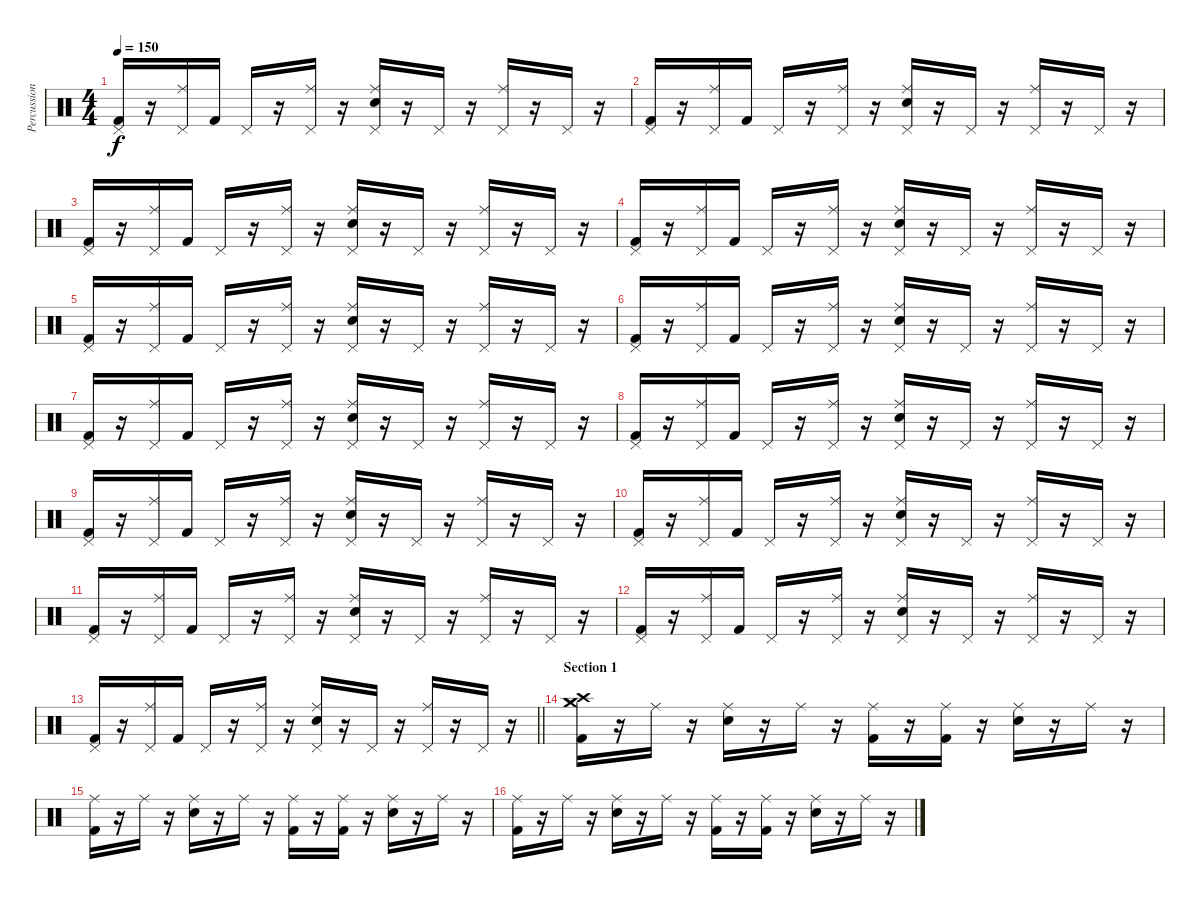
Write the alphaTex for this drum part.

\track ("Percussions" "Percussion") {instrument percussion}
\staff {score}
\articulation defaults
\ts (4 4)
\tempo 150
\clef neutral
\ks c
("Pedal Hi-Hat (hit)" "Kick (hit) 2").16{dy f} r.16 ("Pedal Hi-Hat (hit)" "Ride (middle)").16 "Kick (hit) 2".16 "Pedal Hi-Hat (hit)".16 r.16 ("Pedal Hi-Hat (hit)" "Ride (middle)").16 r.16 ("Pedal Hi-Hat (hit)" "Ride (middle)" "Snare (hit) 2").16 r.16 "Pedal Hi-Hat (hit)".16 r.16 ("Pedal Hi-Hat (hit)" "Ride (middle)").16 r.16 "Pedal Hi-Hat (hit)".16 r.16 |
("Pedal Hi-Hat (hit)" "Kick (hit) 2").16 r.16 ("Pedal Hi-Hat (hit)" "Ride (middle)").16 "Kick (hit) 2".16 "Pedal Hi-Hat (hit)".16 r.16 ("Pedal Hi-Hat (hit)" "Ride (middle)").16 r.16 ("Pedal Hi-Hat (hit)" "Ride (middle)" "Snare (hit) 2").16 r.16 "Pedal Hi-Hat (hit)".16 r.16 ("Pedal Hi-Hat (hit)" "Ride (middle)").16 r.16 "Pedal Hi-Hat (hit)".16 r.16 |
("Pedal Hi-Hat (hit)" "Kick (hit) 2").16 r.16 ("Pedal Hi-Hat (hit)" "Ride (middle)").16 "Kick (hit) 2".16 "Pedal Hi-Hat (hit)".16 r.16 ("Pedal Hi-Hat (hit)" "Ride (middle)").16 r.16 ("Pedal Hi-Hat (hit)" "Ride (middle)" "Snare (hit) 2").16 r.16 "Pedal Hi-Hat (hit)".16 r.16 ("Pedal Hi-Hat (hit)" "Ride (middle)").16 r.16 "Pedal Hi-Hat (hit)".16 r.16 |
("Pedal Hi-Hat (hit)" "Kick (hit) 2").16 r.16 ("Pedal Hi-Hat (hit)" "Ride (middle)").16 "Kick (hit) 2".16 "Pedal Hi-Hat (hit)".16 r.16 ("Pedal Hi-Hat (hit)" "Ride (middle)").16 r.16 ("Pedal Hi-Hat (hit)" "Ride (middle)" "Snare (hit) 2").16 r.16 "Pedal Hi-Hat (hit)".16 r.16 ("Pedal Hi-Hat (hit)" "Ride (middle)").16 r.16 "Pedal Hi-Hat (hit)".16 r.16 |
("Pedal Hi-Hat (hit)" "Kick (hit) 2").16 r.16 ("Pedal Hi-Hat (hit)" "Ride (middle)").16 "Kick (hit) 2".16 "Pedal Hi-Hat (hit)".16 r.16 ("Pedal Hi-Hat (hit)" "Ride (middle)").16 r.16 ("Pedal Hi-Hat (hit)" "Ride (middle)" "Snare (hit) 2").16 r.16 "Pedal Hi-Hat (hit)".16 r.16 ("Pedal Hi-Hat (hit)" "Ride (middle)").16 r.16 "Pedal Hi-Hat (hit)".16 r.16 |
("Pedal Hi-Hat (hit)" "Kick (hit) 2").16 r.16 ("Pedal Hi-Hat (hit)" "Ride (middle)").16 "Kick (hit) 2".16 "Pedal Hi-Hat (hit)".16 r.16 ("Pedal Hi-Hat (hit)" "Ride (middle)").16 r.16 ("Pedal Hi-Hat (hit)" "Ride (middle)" "Snare (hit) 2").16 r.16 "Pedal Hi-Hat (hit)".16 r.16 ("Pedal Hi-Hat (hit)" "Ride (middle)").16 r.16 "Pedal Hi-Hat (hit)".16 r.16 |
("Pedal Hi-Hat (hit)" "Kick (hit) 2").16 r.16 ("Pedal Hi-Hat (hit)" "Ride (middle)").16 "Kick (hit) 2".16 "Pedal Hi-Hat (hit)".16 r.16 ("Pedal Hi-Hat (hit)" "Ride (middle)").16 r.16 ("Pedal Hi-Hat (hit)" "Ride (middle)" "Snare (hit) 2").16 r.16 "Pedal Hi-Hat (hit)".16 r.16 ("Pedal Hi-Hat (hit)" "Ride (middle)").16 r.16 "Pedal Hi-Hat (hit)".16 r.16 |
("Pedal Hi-Hat (hit)" "Kick (hit) 2").16 r.16 ("Pedal Hi-Hat (hit)" "Ride (middle)").16 "Kick (hit) 2".16 "Pedal Hi-Hat (hit)".16 r.16 ("Pedal Hi-Hat (hit)" "Ride (middle)").16 r.16 ("Pedal Hi-Hat (hit)" "Ride (middle)" "Snare (hit) 2").16 r.16 "Pedal Hi-Hat (hit)".16 r.16 ("Pedal Hi-Hat (hit)" "Ride (middle)").16 r.16 "Pedal Hi-Hat (hit)".16 r.16 |
("Pedal Hi-Hat (hit)" "Kick (hit) 2").16 r.16 ("Pedal Hi-Hat (hit)" "Ride (middle)").16 "Kick (hit) 2".16 "Pedal Hi-Hat (hit)".16 r.16 ("Pedal Hi-Hat (hit)" "Ride (middle)").16 r.16 ("Pedal Hi-Hat (hit)" "Ride (middle)" "Snare (hit) 2").16 r.16 "Pedal Hi-Hat (hit)".16 r.16 ("Pedal Hi-Hat (hit)" "Ride (middle)").16 r.16 "Pedal Hi-Hat (hit)".16 r.16 |
("Pedal Hi-Hat (hit)" "Kick (hit) 2").16 r.16 ("Pedal Hi-Hat (hit)" "Ride (middle)").16 "Kick (hit) 2".16 "Pedal Hi-Hat (hit)".16 r.16 ("Pedal Hi-Hat (hit)" "Ride (middle)").16 r.16 ("Pedal Hi-Hat (hit)" "Ride (middle)" "Snare (hit) 2").16 r.16 "Pedal Hi-Hat (hit)".16 r.16 ("Pedal Hi-Hat (hit)" "Ride (middle)").16 r.16 "Pedal Hi-Hat (hit)".16 r.16 |
("Pedal Hi-Hat (hit)" "Kick (hit) 2").16 r.16 ("Pedal Hi-Hat (hit)" "Ride (middle)").16 "Kick (hit) 2".16 "Pedal Hi-Hat (hit)".16 r.16 ("Pedal Hi-Hat (hit)" "Ride (middle)").16 r.16 ("Pedal Hi-Hat (hit)" "Ride (middle)" "Snare (hit) 2").16 r.16 "Pedal Hi-Hat (hit)".16 r.16 ("Pedal Hi-Hat (hit)" "Ride (middle)").16 r.16 "Pedal Hi-Hat (hit)".16 r.16 |
("Pedal Hi-Hat (hit)" "Kick (hit) 2").16 r.16 ("Pedal Hi-Hat (hit)" "Ride (middle)").16 "Kick (hit) 2".16 "Pedal Hi-Hat (hit)".16 r.16 ("Pedal Hi-Hat (hit)" "Ride (middle)").16 r.16 ("Pedal Hi-Hat (hit)" "Ride (middle)" "Snare (hit) 2").16 r.16 "Pedal Hi-Hat (hit)".16 r.16 ("Pedal Hi-Hat (hit)" "Ride (middle)").16 r.16 "Pedal Hi-Hat (hit)".16 r.16 |
\barLineRight lightlight
("Pedal Hi-Hat (hit)" "Kick (hit) 2").16 r.16 ("Pedal Hi-Hat (hit)" "Ride (middle)").16 "Kick (hit) 2".16 "Pedal Hi-Hat (hit)".16 r.16 ("Pedal Hi-Hat (hit)" "Ride (middle)").16 r.16 ("Pedal Hi-Hat (hit)" "Ride (middle)" "Snare (hit) 2").16 r.16 "Pedal Hi-Hat (hit)".16 r.16 ("Pedal Hi-Hat (hit)" "Ride (middle)").16 r.16 "Pedal Hi-Hat (hit)".16 r.16 |
\section ("" "Section 1")
("Crash medium (hit)" "Crash medium (hit)" "Kick (hit) 2" "Crash high (hit)").16 r.16 "Ride (middle)".16 r.16 ("Ride (middle)" "Snare (hit) 2").16 r.16 "Ride (middle)".16 r.16 ("Ride (middle)" "Kick (hit) 2").16 r.16 ("Ride (middle)" "Kick (hit) 2").16 r.16 ("Ride (middle)" "Snare (hit) 2").16 r.16 "Ride (middle)".16 r.16 |
("Ride (middle)" "Kick (hit) 2").16 r.16 "Ride (middle)".16 r.16 ("Ride (middle)" "Snare (hit) 2").16 r.16 "Ride (middle)".16 r.16 ("Ride (middle)" "Kick (hit) 2").16 r.16 ("Ride (middle)" "Kick (hit) 2").16 r.16 ("Ride (middle)" "Snare (hit) 2").16 r.16 "Ride (middle)".16 r.16 |
("Ride (middle)" "Kick (hit) 2").16 r.16 "Ride (middle)".16 r.16 ("Ride (middle)" "Snare (hit) 2").16 r.16 "Ride (middle)".16 r.16 ("Ride (middle)" "Kick (hit) 2").16 r.16 ("Ride (middle)" "Kick (hit) 2").16 r.16 ("Ride (middle)" "Snare (hit) 2").16 r.16 "Ride (middle)".16 r.16
